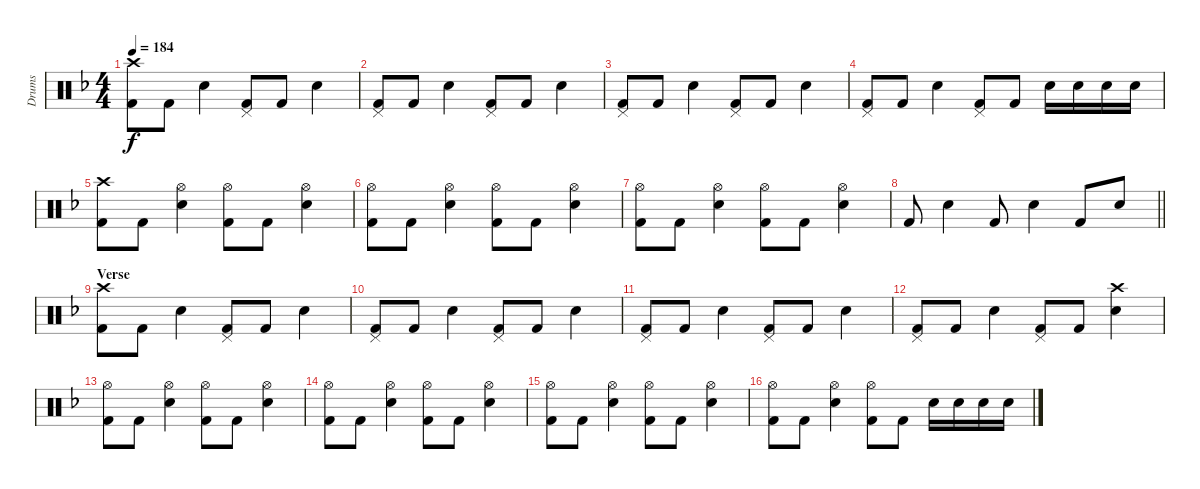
\track ("Drums" "Drums") {instrument percussion}
\staff {score}
\articulation defaults
\ts (4 4)
\tempo 184
\clef neutral
\ks f
("Crash high (hit)" "Kick (hit) 2").8{dy f} "Kick (hit) 2".8 "Electric Snare (hit)".4 ("Pedal Hi-Hat (hit)" "Kick (hit) 2").8 "Kick (hit) 2".8 "Electric Snare (hit)".4 |
("Pedal Hi-Hat (hit)" "Kick (hit) 2").8 "Kick (hit) 2".8 "Electric Snare (hit)".4 ("Pedal Hi-Hat (hit)" "Kick (hit) 2").8 "Kick (hit) 2".8 "Electric Snare (hit)".4 |
("Pedal Hi-Hat (hit)" "Kick (hit) 2").8 "Kick (hit) 2".8 "Electric Snare (hit)".4 ("Pedal Hi-Hat (hit)" "Kick (hit) 2").8 "Kick (hit) 2".8 "Electric Snare (hit)".4 |
("Pedal Hi-Hat (hit)" "Kick (hit) 2").8 "Kick (hit) 2".8 "Electric Snare (hit)".4 ("Pedal Hi-Hat (hit)" "Kick (hit) 2").8 "Kick (hit) 2".8 "Electric Snare (hit)".16 "Electric Snare (hit)".16 "Electric Snare (hit)".16 "Electric Snare (hit)".16 |
("Crash high (hit)" "Kick (hit) 2").8 "Kick (hit) 2".8 ("Electric Snare (hit)" "Hi-Hat (open)").4 ("Hi-Hat (open)" "Kick (hit) 2").8 "Kick (hit) 2".8 ("Electric Snare (hit)" "Hi-Hat (open)").4 |
("Hi-Hat (open)" "Kick (hit) 2").8 "Kick (hit) 2".8 ("Electric Snare (hit)" "Hi-Hat (open)").4 ("Hi-Hat (open)" "Kick (hit) 2").8 "Kick (hit) 2".8 ("Electric Snare (hit)" "Hi-Hat (open)").4 |
("Hi-Hat (open)" "Kick (hit) 2").8 "Kick (hit) 2".8 ("Electric Snare (hit)" "Hi-Hat (open)").4 ("Hi-Hat (open)" "Kick (hit) 2").8 "Kick (hit) 2".8 ("Electric Snare (hit)" "Hi-Hat (open)").4 |
\barLineRight lightlight "Kick (hit) 2".8 "Electric Snare (hit)".4 "Kick (hit) 2".8 "Electric Snare (hit)".4 "Kick (hit) 2".8 "Electric Snare (hit)".8
|
\section ("" "Verse")
("Crash high (hit)" "Kick (hit) 2").8 "Kick (hit) 2".8 "Electric Snare (hit)".4 ("Pedal Hi-Hat (hit)" "Kick (hit) 2").8 "Kick (hit) 2".8 "Electric Snare (hit)".4 |
("Pedal Hi-Hat (hit)" "Kick (hit) 2").8 "Kick (hit) 2".8 "Electric Snare (hit)".4 ("Pedal Hi-Hat (hit)" "Kick (hit) 2").8 "Kick (hit) 2".8 "Electric Snare (hit)".4 |
("Pedal Hi-Hat (hit)" "Kick (hit) 2").8 "Kick (hit) 2".8 "Electric Snare (hit)".4 ("Pedal Hi-Hat (hit)" "Kick (hit) 2").8 "Kick (hit) 2".8 "Electric Snare (hit)".4 |
("Pedal Hi-Hat (hit)" "Kick (hit) 2").8 "Kick (hit) 2".8 "Electric Snare (hit)".4 ("Pedal Hi-Hat (hit)" "Kick (hit) 2").8 "Kick (hit) 2".8 ("Crash high (hit)" "Electric Snare (hit)").4 |
("Hi-Hat (open)" "Kick (hit) 2").8 "Kick (hit) 2".8 ("Electric Snare (hit)" "Hi-Hat (open)").4 ("Hi-Hat (open)" "Kick (hit) 2").8 "Kick (hit) 2".8 ("Electric Snare (hit)" "Hi-Hat (open)").4 |
("Hi-Hat (open)" "Kick (hit) 2").8 "Kick (hit) 2".8 ("Electric Snare (hit)" "Hi-Hat (open)").4 ("Hi-Hat (open)" "Kick (hit) 2").8 "Kick (hit) 2".8 ("Electric Snare (hit)" "Hi-Hat (open)").4 |
("Hi-Hat (open)" "Kick (hit) 2").8 "Kick (hit) 2".8 ("Electric Snare (hit)" "Hi-Hat (open)").4 ("Hi-Hat (open)" "Kick (hit) 2").8 "Kick (hit) 2".8 ("Electric Snare (hit)" "Hi-Hat (open)").4 |
("Hi-Hat (open)" "Kick (hit) 2").8 "Kick (hit) 2".8 ("Electric Snare (hit)" "Hi-Hat (open)").4 ("Hi-Hat (open)" "Kick (hit) 2").8 "Kick (hit) 2".8 "Electric Snare (hit)".16 "Electric Snare (hit)".16 "Electric Snare (hit)".16 "Electric Snare (hit)".16
